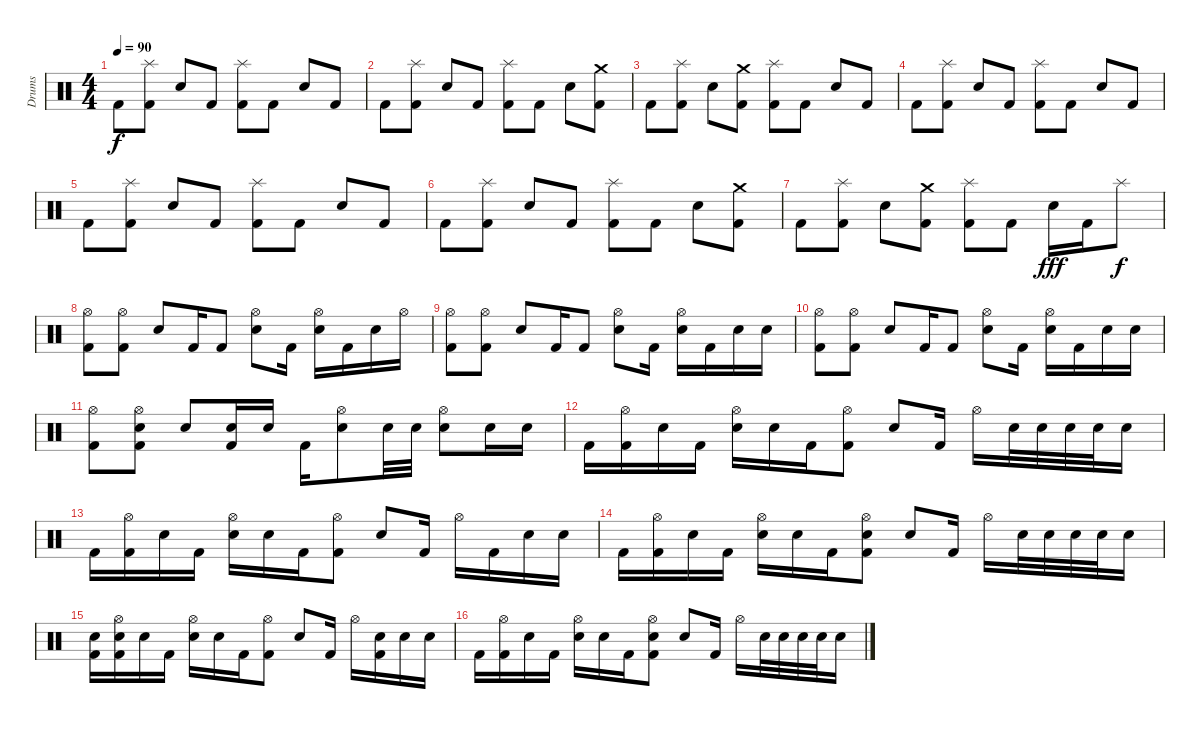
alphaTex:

\track ("Drums" "Drums") {instrument percussion}
\staff {score}
\articulation defaults
\ts (4 4)
\tempo 90
\clef neutral
\ks c "Kick (hit) 2".8{dy f}
("Splash (hit)" "Kick (hit) 2").8 "Electric Snare (hit)".8 "Kick (hit) 2".8 ("Splash (hit)" "Kick (hit) 2").8 "Kick (hit) 2".8 "Electric Snare (hit)".8 "Kick (hit) 2".8 |
"Kick (hit) 2".8 ("Splash (hit)" "Kick (hit) 2").8 "Electric Snare (hit)".8 "Kick (hit) 2".8 ("Splash (hit)" "Kick (hit) 2").8 "Kick (hit) 2".8 "Snare (hit) 2".8 ("Crash medium (hit)" "Kick (hit) 2").8 |
"Kick (hit) 2".8 ("Splash (hit)" "Kick (hit) 2").8 "Electric Snare (hit)".8 ("Crash medium (hit)" "Kick (hit) 2").8 ("Splash (hit)" "Kick (hit) 2").8 "Kick (hit) 2".8 "Electric Snare (hit)".8 "Kick (hit) 2".8 |
"Kick (hit) 2".8 ("Splash (hit)" "Kick (hit) 2").8 "Electric Snare (hit)".8 "Kick (hit) 2".8 ("Splash (hit)" "Kick (hit) 2").8 "Kick (hit) 2".8 "Electric Snare (hit)".8 "Kick (hit) 2".8 |
"Kick (hit) 2".8 ("Splash (hit)" "Kick (hit) 2").8 "Electric Snare (hit)".8 "Kick (hit) 2".8 ("Splash (hit)" "Kick (hit) 2").8 "Kick (hit) 2".8 "Electric Snare (hit)".8 "Kick (hit) 2".8 |
"Kick (hit) 2".8 ("Splash (hit)" "Kick (hit) 2").8 "Electric Snare (hit)".8 "Kick (hit) 2".8 ("Splash (hit)" "Kick (hit) 2").8 "Kick (hit) 2".8 "Snare (hit) 2".8 ("Crash medium (hit)" "Kick (hit) 2").8 |
"Kick (hit) 2".8 ("Splash (hit)" "Kick (hit) 2").8 "Electric Snare (hit)".8 ("Crash medium (hit)" "Kick (hit) 2").8 ("Splash (hit)" "Kick (hit) 2").8 "Kick (hit) 2".8 "Electric Snare (hit)".16{dy fff} "Kick (hit) 2".16 "Splash (hit)".8{dy f} |
("Hi-Hat (open)" "Kick (hit) 2").8 ("Hi-Hat (open)" "Kick (hit) 2").8 "Electric Snare (hit)".8 "Kick (hit) 2".16 "Kick (hit) 2".8 ("Hi-Hat (open)" "Snare (hit) 2").8 "Kick (hit) 2".16 ("Hi-Hat (open)" "Electric Snare (hit)").16 "Kick (hit) 2".16 "Snare (hit) 2".16 "Hi-Hat (open)".16 |
("Hi-Hat (open)" "Kick (hit) 2").8 ("Hi-Hat (open)" "Kick (hit) 2").8 "Electric Snare (hit)".8 "Kick (hit) 2".16 "Kick (hit) 2".8 ("Hi-Hat (open)" "Snare (hit) 2").8 "Kick (hit) 2".16 ("Hi-Hat (open)" "Electric Snare (hit)").16 "Kick (hit) 2".16 "Snare (hit) 2".16 "Snare (hit) 2".16 |
("Hi-Hat (open)" "Kick (hit) 2").8 ("Hi-Hat (open)" "Kick (hit) 2").8 "Electric Snare (hit)".8 "Kick (hit) 2".16 "Kick (hit) 2".8 ("Hi-Hat (open)" "Snare (hit) 2").8 "Kick (hit) 2".16 ("Hi-Hat (open)" "Electric Snare (hit)").16 "Kick (hit) 2".16 "Snare (hit) 2".16 "Snare (hit) 2".16 |
("Hi-Hat (open)" "Kick (hit) 2").8 ("Hi-Hat (open)" "Electric Snare (hit)" "Kick (hit) 2").8 "Electric Snare (hit)".8 ("Electric Snare (hit)" "Kick (hit) 2").16 "Electric Snare (hit)".16 "Kick (hit) 2".16 ("Hi-Hat (open)" "Snare (hit) 2").8 "Electric Snare (hit)".32 "Electric Snare (hit)".32 ("Hi-Hat (open)" "Electric Snare (hit)").8 "Snare (hit) 2".16 "Snare (hit) 2".16 |
"Kick (hit) 2".16{volume 12} ("Hi-Hat (open)" "Kick (hit) 2").16 "Electric Snare (hit)".16 "Kick (hit) 2".16 ("Hi-Hat (open)" "Electric Snare (hit)").16 "Electric Snare (hit)".16 "Kick (hit) 2".16 ("Hi-Hat (open)" "Kick (hit) 2").8 "Electric Snare (hit)".8 "Kick (hit) 2".16 "Hi-Hat (open)".16 "Electric Snare (hit)".32 "Electric Snare (hit)".32 "Electric Snare (hit)".32 "Electric Snare (hit)".32 "Electric Snare (hit)".16 |
"Kick (hit) 2".16 ("Hi-Hat (open)" "Kick (hit) 2").16 "Electric Snare (hit)".16 "Kick (hit) 2".16 ("Hi-Hat (open)" "Electric Snare (hit)").16 "Electric Snare (hit)".16 "Kick (hit) 2".16 ("Hi-Hat (open)" "Kick (hit) 2").8 "Electric Snare (hit)".8 "Kick (hit) 2".16 "Hi-Hat (open)".16 "Kick (hit) 2".16 "Electric Snare (hit)".16 "Electric Snare (hit)".16 |
"Kick (hit) 2".16 ("Hi-Hat (open)" "Kick (hit) 2").16 "Electric Snare (hit)".16 "Kick (hit) 2".16 ("Hi-Hat (open)" "Electric Snare (hit)").16 "Electric Snare (hit)".16 "Kick (hit) 2".16 ("Hi-Hat (open)" "Electric Snare (hit)" "Kick (hit) 2").8 "Electric Snare (hit)".8 "Kick (hit) 2".16 "Hi-Hat (open)".16 "Electric Snare (hit)".32 "Electric Snare (hit)".32 "Electric Snare (hit)".32 "Electric Snare (hit)".32 "Electric Snare (hit)".16 |
("Snare (hit) 2" "Kick (hit) 2").16 ("Snare (hit) 2" "Hi-Hat (open)" "Kick (hit) 2").16 "Electric Snare (hit)".16 "Kick (hit) 2".16 ("Hi-Hat (open)" "Electric Snare (hit)").16 "Electric Snare (hit)".16 "Kick (hit) 2".16 ("Hi-Hat (open)" "Kick (hit) 2").8 "Electric Snare (hit)".8 "Kick (hit) 2".16 "Hi-Hat (open)".16 ("Snare (hit) 2" "Kick (hit) 2").16 "Electric Snare (hit)".16 "Electric Snare (hit)".16 |
"Kick (hit) 2".16 ("Hi-Hat (open)" "Kick (hit) 2").16 "Electric Snare (hit)".16 "Kick (hit) 2".16 ("Hi-Hat (open)" "Electric Snare (hit)").16 "Electric Snare (hit)".16 "Kick (hit) 2".16 ("Hi-Hat (open)" "Electric Snare (hit)" "Kick (hit) 2").8 "Electric Snare (hit)".8 "Kick (hit) 2".16 "Hi-Hat (open)".16 "Electric Snare (hit)".32 "Electric Snare (hit)".32 "Electric Snare (hit)".32 "Electric Snare (hit)".32 "Electric Snare (hit)".16
